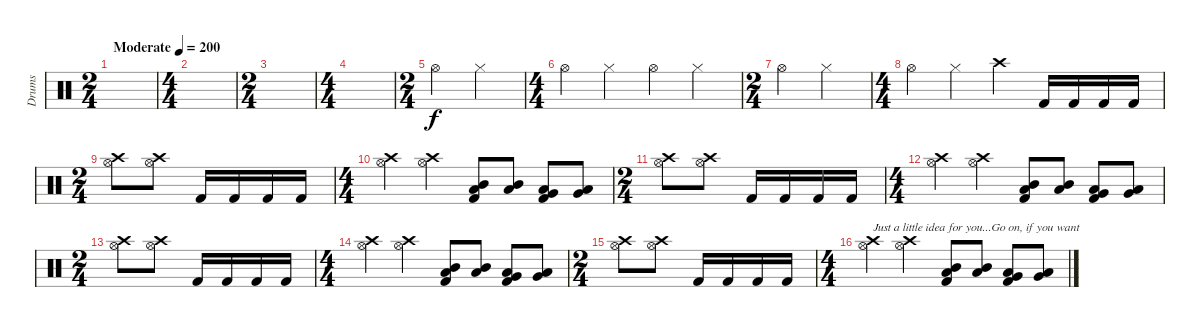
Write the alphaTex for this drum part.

\track ("Drums" "Drums") {instrument percussion}
\staff {score}
\articulation defaults
\ts (2 4)
\tempo (200 "Moderate")
\clef neutral
\ks c
|
\ts (4 4)
|
\ts (2 4)
|
\ts (4 4)
|
\ts (2 4)
"Hi-Hat (open)".4 "Hi-Hat (closed)".4 |
\ts (4 4)
"Hi-Hat (open)".4 "Hi-Hat (closed)".4 "Hi-Hat (open)".4 "Hi-Hat (closed)".4 |
\ts (2 4)
"Hi-Hat (open)".4 "Hi-Hat (closed)".4 |
\ts (4 4)
"Hi-Hat (open)".4 "Hi-Hat (closed)".4 "Crash high (hit)".4 "Kick (hit) 2".16 "Kick (hit) 2".16 "Kick (hit) 2".16 "Kick (hit) 2".16 |
\ts (2 4)
("Hi-Hat (open)" "Crash high (hit)").8 ("Hi-Hat (open)" "Crash high (hit)").8 "Kick (hit) 2".16 "Kick (hit) 2".16 "Kick (hit) 2".16 "Kick (hit) 2".16 |
\ts (4 4)
("Hi-Hat (open)" "Crash high (hit)").4 ("Hi-Hat (open)" "Crash high (hit)").4 ("Mid Tom (hit)" "Low Tom (hit)" "Kick (hit) 2").8 ("Mid Tom (hit)" "Low Tom (hit)").8 ("Very Low Tom (hit)" "Low Floor Tom (hit)" "Kick (hit) 2").8 ("Very Low Tom (hit)" "Low Floor Tom (hit)").8 |
\ts (2 4)
("Hi-Hat (open)" "Crash high (hit)").8 ("Hi-Hat (open)" "Crash high (hit)").8 "Kick (hit) 2".16 "Kick (hit) 2".16 "Kick (hit) 2".16 "Kick (hit) 2".16 |
\ts (4 4)
("Hi-Hat (open)" "Crash high (hit)").4 ("Hi-Hat (open)" "Crash high (hit)").4 ("Mid Tom (hit)" "Low Tom (hit)" "Kick (hit) 2").8 ("Mid Tom (hit)" "Low Tom (hit)").8 ("Very Low Tom (hit)" "Low Floor Tom (hit)" "Kick (hit) 2").8 ("Very Low Tom (hit)" "Low Floor Tom (hit)").8 |
\ts (2 4)
("Hi-Hat (open)" "Crash high (hit)").8 ("Hi-Hat (open)" "Crash high (hit)").8 "Kick (hit) 2".16 "Kick (hit) 2".16 "Kick (hit) 2".16 "Kick (hit) 2".16 |
\ts (4 4)
("Hi-Hat (open)" "Crash high (hit)").4 ("Hi-Hat (open)" "Crash high (hit)").4 ("Mid Tom (hit)" "Low Tom (hit)" "Kick (hit) 2").8 ("Mid Tom (hit)" "Low Tom (hit)").8 ("Very Low Tom (hit)" "Low Floor Tom (hit)" "Kick (hit) 2").8 ("Very Low Tom (hit)" "Low Floor Tom (hit)").8 |
\ts (2 4)
("Hi-Hat (open)" "Crash high (hit)").8 ("Hi-Hat (open)" "Crash high (hit)").8 "Kick (hit) 2".16 "Kick (hit) 2".16 "Kick (hit) 2".16 "Kick (hit) 2".16 |
\ts (4 4)
("Hi-Hat (open)" "Crash high (hit)").4{txt "Just a little idea for you...Go on, if you want"} ("Hi-Hat (open)" "Crash high (hit)").4 ("Mid Tom (hit)" "Low Tom (hit)" "Kick (hit) 2").8 ("Mid Tom (hit)" "Low Tom (hit)").8 ("Very Low Tom (hit)" "Low Floor Tom (hit)" "Kick (hit) 2").8 ("Very Low Tom (hit)" "Low Floor Tom (hit)").8
